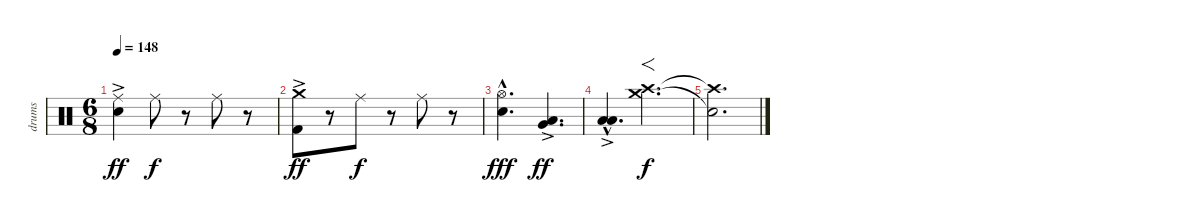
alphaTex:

\track ("drums" "drums") {instrument percussion}
\staff {score}
\articulation defaults
\ts (6 8)
\tempo 148
\clef neutral
\ks c
("Ride (middle)" "Electric Snare (hit)"{ac}).4{dy ff} "Ride (middle)".8{dy f} r.8 "Ride (middle)".8 r.8 |
("Crash medium (hit)" "Kick (hit) 2"{ac}).8{dy ff} r.8 "Ride (middle)".8{dy f} r.8 "Ride (middle)".8 r.8 |
("Hi-Hat (open)" "Electric Snare (hit)"{hac}).4{d dy fff} ("Low Floor Tom (hit)"{ac} "Very Low Tom (hit)"{ac}).4{d dy ff} |
("Low Floor Tom (hit)"{hac} "Low Floor Tom (hit)"{ac}).4{d} ("Crash medium (hit)" "Crash high (hit)").4{f d dy f} |
("Snare (hit)"{t} "Crash high (hit)"{t}).2{d}
